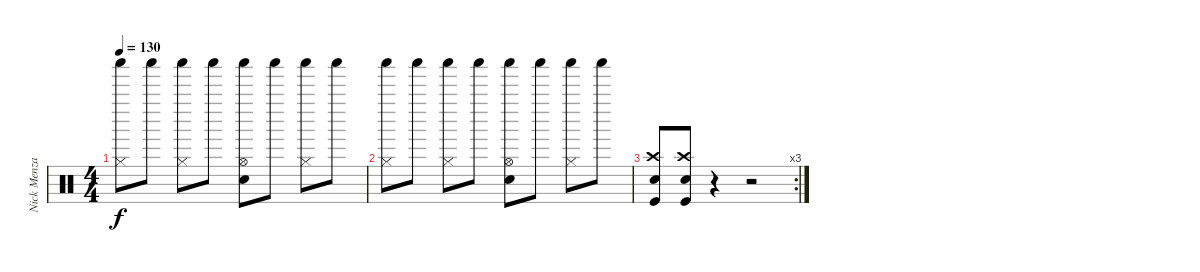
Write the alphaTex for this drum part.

\track ("Nick Menza" "Nick Menza") {instrument percussion}
\staff {score}
\articulation defaults
\ts (4 4)
\tempo 130
\clef neutral
\ks c
("Shaker (hit)" "Hi-Hat (closed)").8{dy f} "Shaker (hit)".8 ("Shaker (hit)" "Hi-Hat (closed)").8 "Shaker (hit)".8 ("Shaker (hit)" "Hi-Hat (open)" "Snare (hit) 2").8 "Shaker (hit)".8 ("Shaker (hit)" "Hi-Hat (closed)").8 "Shaker (hit)".8 |
("Shaker (hit)" "Hi-Hat (closed)").8 "Shaker (hit)".8 ("Shaker (hit)" "Hi-Hat (closed)").8 "Shaker (hit)".8 ("Shaker (hit)" "Hi-Hat (open)" "Snare (hit) 2").8 "Shaker (hit)".8 ("Shaker (hit)" "Hi-Hat (closed)").8 "Shaker (hit)".8 |
\rc 3
("Crash high (hit)" "Snare (hit) 2" "Kick (hit)").8 ("Crash high (hit)" "Snare (hit) 2" "Kick (hit)").8 r.4 r.2
